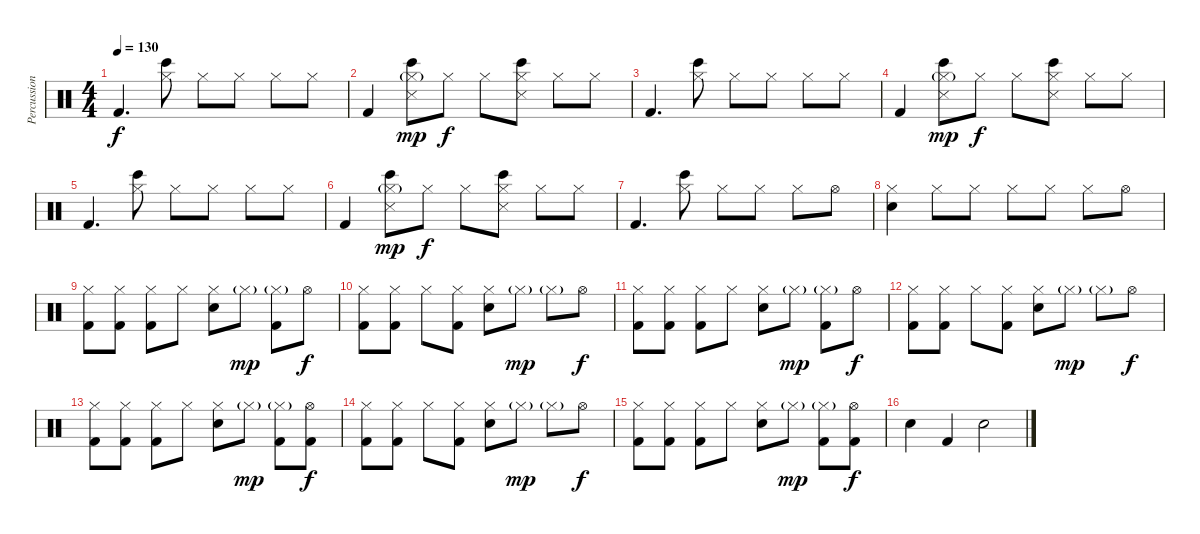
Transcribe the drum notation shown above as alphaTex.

\track ("Percussion" "Percussion") {instrument percussion}
\staff {score}
\articulation defaults
\ts (4 4)
\tempo 130
\clef neutral
\ks c "Kick (hit) 2".4{d dy f}
("Hi-Hat (closed)" "Bongo High (hit)").8 "Hi-Hat (closed)".8 "Hi-Hat (closed)".8 "Hi-Hat (closed)".8 "Hi-Hat (closed)".8 |
"Kick (hit) 2".4 ("Hi-Hat (closed)"{g} "Bongo High (hit)" "Snare (side stick) 3").8{dy mp} "Hi-Hat (closed)".8{dy f} "Hi-Hat (closed)".8 ("Hi-Hat (closed)" "Bongo High (hit)" "Snare (side stick) 3").8 "Hi-Hat (closed)".8 "Hi-Hat (closed)".8 |
"Kick (hit) 2".4{d} ("Hi-Hat (closed)" "Bongo High (hit)").8 "Hi-Hat (closed)".8 "Hi-Hat (closed)".8 "Hi-Hat (closed)".8 "Hi-Hat (closed)".8 |
"Kick (hit) 2".4 ("Hi-Hat (closed)"{g} "Bongo High (hit)" "Snare (side stick) 3").8{dy mp} "Hi-Hat (closed)".8{dy f} "Hi-Hat (closed)".8 ("Hi-Hat (closed)" "Bongo High (hit)" "Snare (side stick) 3").8 "Hi-Hat (closed)".8 "Hi-Hat (closed)".8 |
"Kick (hit) 2".4{d} ("Hi-Hat (closed)" "Bongo High (hit)").8 "Hi-Hat (closed)".8 "Hi-Hat (closed)".8 "Hi-Hat (closed)".8 "Hi-Hat (closed)".8 |
"Kick (hit) 2".4 ("Hi-Hat (closed)"{g} "Bongo High (hit)" "Snare (side stick) 3").8{dy mp} "Hi-Hat (closed)".8{dy f} "Hi-Hat (closed)".8 ("Hi-Hat (closed)" "Bongo High (hit)" "Snare (side stick) 3").8 "Hi-Hat (closed)".8 "Hi-Hat (closed)".8 |
"Kick (hit) 2".4{d} ("Hi-Hat (closed)" "Bongo High (hit)").8 "Hi-Hat (closed)".8 "Hi-Hat (closed)".8 "Hi-Hat (closed)".8 "Hi-Hat (open)".8 |
("Hi-Hat (closed)" "Snare (hit) 2").4 "Hi-Hat (closed)".8 "Hi-Hat (closed)".8 "Hi-Hat (closed)".8 "Hi-Hat (closed)".8 "Hi-Hat (closed)".8 "Hi-Hat (open)".8 |
("Hi-Hat (closed)" "Kick (hit) 2").8 ("Hi-Hat (closed)" "Kick (hit) 2").8 ("Hi-Hat (closed)" "Kick (hit) 2").8 "Hi-Hat (closed)".8 ("Hi-Hat (closed)" "Snare (hit) 2").8 "Hi-Hat (closed)"{g}.8{dy mp} ("Hi-Hat (closed)"{g} "Kick (hit) 2").8 "Hi-Hat (open)".8{dy f} |
("Hi-Hat (closed)" "Kick (hit) 2").8 ("Hi-Hat (closed)" "Kick (hit) 2").8 "Hi-Hat (closed)".8 ("Hi-Hat (closed)" "Kick (hit) 2").8 ("Hi-Hat (closed)" "Snare (hit) 2").8 "Hi-Hat (closed)"{g}.8{dy mp} "Hi-Hat (closed)"{g}.8 "Hi-Hat (open)".8{dy f} |
("Hi-Hat (closed)" "Kick (hit) 2").8 ("Hi-Hat (closed)" "Kick (hit) 2").8 ("Hi-Hat (closed)" "Kick (hit) 2").8 "Hi-Hat (closed)".8 ("Hi-Hat (closed)" "Snare (hit) 2").8 "Hi-Hat (closed)"{g}.8{dy mp} ("Hi-Hat (closed)"{g} "Kick (hit) 2").8 "Hi-Hat (open)".8{dy f} |
("Hi-Hat (closed)" "Kick (hit) 2").8 ("Hi-Hat (closed)" "Kick (hit) 2").8 "Hi-Hat (closed)".8 ("Hi-Hat (closed)" "Kick (hit) 2").8 ("Hi-Hat (closed)" "Snare (hit) 2").8 "Hi-Hat (closed)"{g}.8{dy mp} "Hi-Hat (closed)"{g}.8 "Hi-Hat (open)".8{dy f} |
("Hi-Hat (closed)" "Kick (hit) 2").8 ("Hi-Hat (closed)" "Kick (hit) 2").8 ("Hi-Hat (closed)" "Kick (hit) 2").8 "Hi-Hat (closed)".8 ("Hi-Hat (closed)" "Snare (hit) 2").8 "Hi-Hat (closed)"{g}.8{dy mp} ("Hi-Hat (closed)"{g} "Kick (hit) 2").8 ("Hi-Hat (open)" "Kick (hit) 2").8{dy f} |
("Hi-Hat (closed)" "Kick (hit) 2").8 ("Hi-Hat (closed)" "Kick (hit) 2").8 "Hi-Hat (closed)".8 ("Hi-Hat (closed)" "Kick (hit) 2").8 ("Hi-Hat (closed)" "Snare (hit) 2").8 "Hi-Hat (closed)"{g}.8{dy mp} "Hi-Hat (closed)"{g}.8 "Hi-Hat (open)".8{dy f} |
("Hi-Hat (closed)" "Kick (hit) 2").8 ("Hi-Hat (closed)" "Kick (hit) 2").8 ("Hi-Hat (closed)" "Kick (hit) 2").8 "Hi-Hat (closed)".8 ("Hi-Hat (closed)" "Snare (hit) 2").8 "Hi-Hat (closed)"{g}.8{dy mp} ("Hi-Hat (closed)"{g} "Kick (hit) 2").8 ("Hi-Hat (open)" "Kick (hit) 2").8{dy f} |
"Snare (hit) 2".4 "Kick (hit) 2".4 "Snare (hit) 2".2
